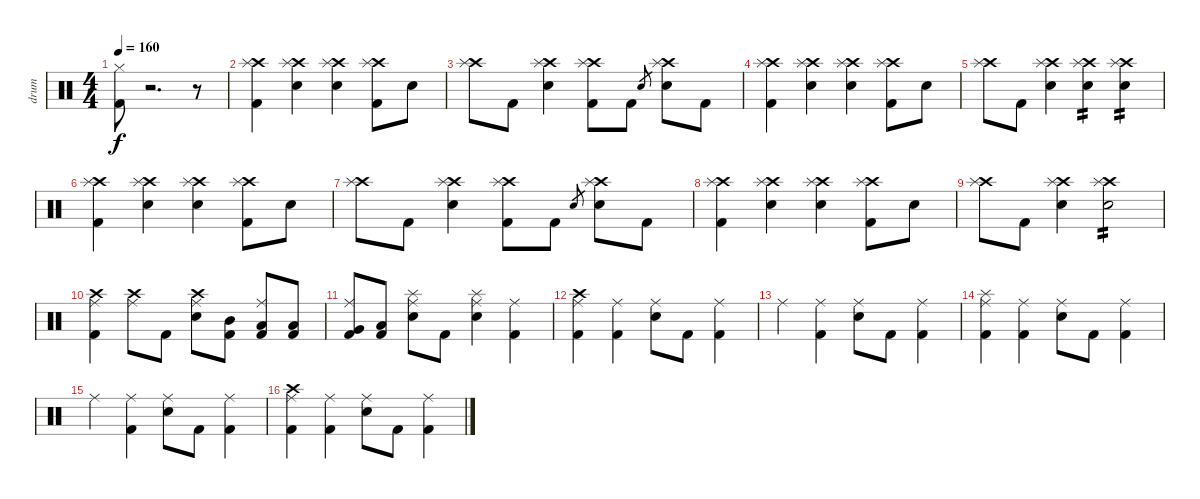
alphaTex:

\track ("drum" "drum") {instrument percussion}
\staff {score}
\articulation defaults
\ts (4 4)
\tempo 160
\clef neutral
\ks c
("Hi-Hat (closed)" "Kick (hit) 2").8{dy f} r.2{d} r.8 |
("Crash high (hit)" "Splash (hit)" "Kick (hit) 2").4 ("Crash high (hit)" "Splash (hit)" "Electric Snare (hit)").4 ("Crash high (hit)" "Splash (hit)" "Electric Snare (hit)").4 ("Crash high (hit)" "Splash (hit)" "Kick (hit) 2").8 "Electric Snare (hit)".8 |
("Crash high (hit)" "Splash (hit)").8 "Kick (hit) 2".8 ("Crash high (hit)" "Splash (hit)" "Electric Snare (hit)").4 ("Crash high (hit)" "Splash (hit)" "Kick (hit) 2").8 "Kick (hit) 2".8 "Electric Snare (hit)".8{gr} ("Crash high (hit)" "Splash (hit)" "Electric Snare (hit)").8 "Kick (hit) 2".8 |
("Crash high (hit)" "Splash (hit)" "Kick (hit) 2").4 ("Crash high (hit)" "Splash (hit)" "Electric Snare (hit)").4 ("Crash high (hit)" "Splash (hit)" "Electric Snare (hit)").4 ("Crash high (hit)" "Splash (hit)" "Kick (hit) 2").8 "Electric Snare (hit)".8 |
("Crash high (hit)" "Splash (hit)").8 "Kick (hit) 2".8 ("Crash high (hit)" "Splash (hit)" "Electric Snare (hit)").4 ("Crash high (hit)" "Splash (hit)" "Electric Snare (hit)").4{tp 2} ("Crash high (hit)" "Splash (hit)" "Electric Snare (hit)").4{tp 2} |
("Crash high (hit)" "Splash (hit)" "Kick (hit) 2").4 ("Crash high (hit)" "Splash (hit)" "Electric Snare (hit)").4 ("Crash high (hit)" "Splash (hit)" "Electric Snare (hit)").4 ("Crash high (hit)" "Splash (hit)" "Kick (hit) 2").8 "Electric Snare (hit)".8 |
("Crash high (hit)" "Splash (hit)").8 "Kick (hit) 2".8 ("Crash high (hit)" "Splash (hit)" "Electric Snare (hit)").4 ("Crash high (hit)" "Splash (hit)" "Kick (hit) 2").8 "Kick (hit) 2".8 "Electric Snare (hit)".8{gr} ("Crash high (hit)" "Splash (hit)" "Electric Snare (hit)").8 "Kick (hit) 2".8 |
("Crash high (hit)" "Splash (hit)" "Kick (hit) 2").4 ("Crash high (hit)" "Splash (hit)" "Electric Snare (hit)").4 ("Crash high (hit)" "Splash (hit)" "Electric Snare (hit)").4 ("Crash high (hit)" "Splash (hit)" "Kick (hit) 2").8 "Electric Snare (hit)".8 |
("Crash high (hit)" "Splash (hit)").8 "Kick (hit) 2".8 ("Crash high (hit)" "Splash (hit)" "Electric Snare (hit)").4 ("Crash high (hit)" "Splash (hit)" "Electric Snare (hit)").2{tp 2} |
("Crash high (hit)" "Ride (middle)" "Kick (hit) 2").4 ("Crash high (hit)" "Ride (middle)").8 "Kick (hit) 2".8 ("Crash high (hit)" "Ride (middle)" "Electric Snare (hit)").8 ("Mid Tom (hit)" "Kick (hit) 2").8 ("Ride (middle)" "Low Tom (hit)" "Kick (hit) 2").8 ("Low Tom (hit)" "Kick (hit) 2").8 |
("Ride (middle)" "Very Low Tom (hit)" "Kick (hit) 2").8 ("Low Floor Tom (hit)" "Kick (hit) 2").8 ("Splash (hit)" "Ride (middle)" "Electric Snare (hit)").8 "Kick (hit) 2".8 ("Splash (hit)" "Ride (middle)" "Electric Snare (hit)").4 ("Ride (middle)" "Kick (hit) 2").4 |
("Crash high (hit)" "Ride (middle)" "Kick (hit) 2").4 ("Ride (middle)" "Kick (hit) 2").4 ("Ride (middle)" "Electric Snare (hit)").8 "Kick (hit) 2".8 ("Ride (middle)" "Kick (hit) 2").4 |
"Ride (middle)".4 ("Ride (middle)" "Kick (hit) 2").4 ("Ride (middle)" "Electric Snare (hit)").8 "Kick (hit) 2".8 ("Ride (middle)" "Kick (hit) 2").4 |
("Splash (hit)" "Ride (middle)" "Kick (hit) 2").4 ("Ride (middle)" "Kick (hit) 2").4 ("Ride (middle)" "Electric Snare (hit)").8 "Kick (hit) 2".8 ("Ride (middle)" "Kick (hit) 2").4 |
"Ride (middle)".4 ("Ride (middle)" "Kick (hit) 2").4 ("Ride (middle)" "Electric Snare (hit)").8 "Kick (hit) 2".8 ("Ride (middle)" "Kick (hit) 2").4 |
("Crash high (hit)" "Ride (middle)" "Kick (hit) 2").4 ("Ride (middle)" "Kick (hit) 2").4 ("Ride (middle)" "Electric Snare (hit)").8 "Kick (hit) 2".8 ("Ride (middle)" "Kick (hit) 2").4
